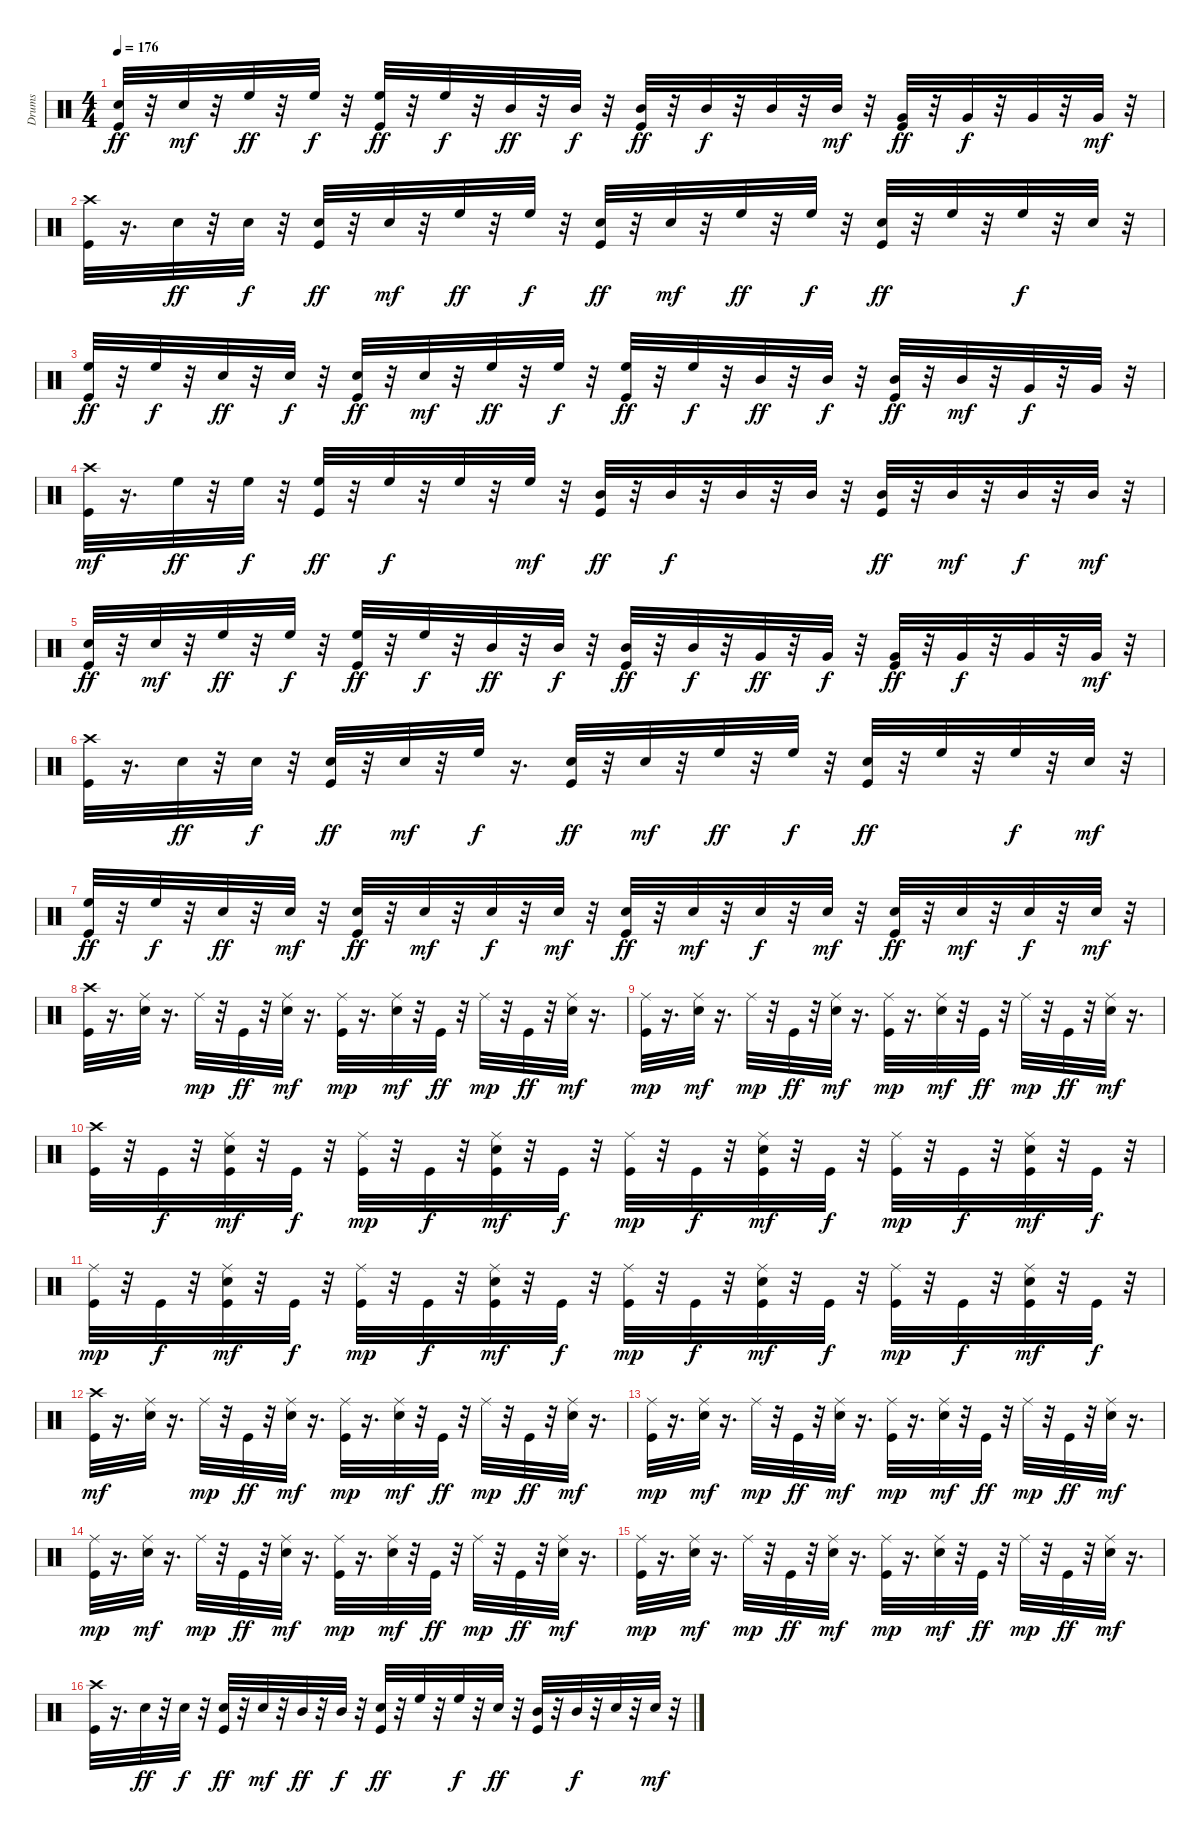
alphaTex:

\track ("Drums" "Drums") {instrument percussion}
\staff {score}
\articulation defaults
\ts (4 4)
\tempo 176
\clef neutral
\ks c
("Kick (hit)" "Snare (hit) 2").32{dy ff} r.32 "Snare (hit) 2".32{dy mf} r.32 "High Floor Tom (hit)".32{dy ff} r.32 "High Floor Tom (hit)".32{dy f} r.32 ("Kick (hit)" "High Floor Tom (hit)").32{dy ff} r.32 "High Floor Tom (hit)".32{dy f} r.32 "Mid Tom (hit)".32{dy ff} r.32 "Mid Tom (hit)".32{dy f} r.32 ("Kick (hit)" "Mid Tom (hit)").32{dy ff} r.32 "Mid Tom (hit)".32{dy f} r.32 "Mid Tom (hit)".32 r.32 "Mid Tom (hit)".32{dy mf} r.32 ("Kick (hit)" "Very Low Tom (hit)").32{dy ff} r.32 "Very Low Tom (hit)".32{dy f} r.32 "Very Low Tom (hit)".32 r.32 "Very Low Tom (hit)".32{dy mf} r.32 |
("Kick (hit)" "Crash high (hit)").32 r.16{d} "Snare (hit) 2".32{dy ff} r.32 "Snare (hit) 2".32{dy f} r.32 ("Kick (hit)" "Snare (hit) 2").32{dy ff} r.32 "Snare (hit) 2".32{dy mf} r.32 "High Floor Tom (hit)".32{dy ff} r.32 "High Floor Tom (hit)".32{dy f} r.32 ("Kick (hit)" "Snare (hit) 2").32{dy ff} r.32 "Snare (hit) 2".32{dy mf} r.32 "High Floor Tom (hit)".32{dy ff} r.32 "High Floor Tom (hit)".32{dy f} r.32 ("Kick (hit)" "Snare (hit) 2").32{dy ff} r.32 "High Floor Tom (hit)".32 r.32 "High Floor Tom (hit)".32{dy f} r.32 "Snare (hit) 2".32 r.32 |
("Kick (hit)" "High Floor Tom (hit)").32{dy ff} r.32 "High Floor Tom (hit)".32{dy f} r.32 "Snare (hit) 2".32{dy ff} r.32 "Snare (hit) 2".32{dy f} r.32 ("Kick (hit)" "Snare (hit) 2").32{dy ff} r.32 "Snare (hit) 2".32{dy mf} r.32 "High Floor Tom (hit)".32{dy ff} r.32 "High Floor Tom (hit)".32{dy f} r.32 ("Kick (hit)" "High Floor Tom (hit)").32{dy ff} r.32 "High Floor Tom (hit)".32{dy f} r.32 "Mid Tom (hit)".32{dy ff} r.32 "Mid Tom (hit)".32{dy f} r.32 ("Kick (hit)" "Mid Tom (hit)").32{dy ff} r.32 "Mid Tom (hit)".32{dy mf} r.32 "Very Low Tom (hit)".32{dy f} r.32 "Very Low Tom (hit)".32 r.32 |
("Kick (hit)" "Crash high (hit)").32{dy mf} r.16{d} "High Floor Tom (hit)".32{dy ff} r.32 "High Floor Tom (hit)".32{dy f} r.32 ("Kick (hit)" "High Floor Tom (hit)").32{dy ff} r.32 "High Floor Tom (hit)".32{dy f} r.32 "High Floor Tom (hit)".32 r.32 "High Floor Tom (hit)".32{dy mf} r.32 ("Kick (hit)" "Mid Tom (hit)").32{dy ff} r.32 "Mid Tom (hit)".32{dy f} r.32 "Mid Tom (hit)".32 r.32 "Mid Tom (hit)".32 r.32 ("Kick (hit)" "Mid Tom (hit)").32{dy ff} r.32 "Mid Tom (hit)".32{dy mf} r.32 "Mid Tom (hit)".32{dy f} r.32 "Mid Tom (hit)".32{dy mf} r.32 |
("Kick (hit)" "Snare (hit) 2").32{dy ff} r.32 "Snare (hit) 2".32{dy mf} r.32 "High Floor Tom (hit)".32{dy ff} r.32 "High Floor Tom (hit)".32{dy f} r.32 ("Kick (hit)" "High Floor Tom (hit)").32{dy ff} r.32 "High Floor Tom (hit)".32{dy f} r.32 "Mid Tom (hit)".32{dy ff} r.32 "Mid Tom (hit)".32{dy f} r.32 ("Kick (hit)" "Mid Tom (hit)").32{dy ff} r.32 "Mid Tom (hit)".32{dy f} r.32 "Very Low Tom (hit)".32{dy ff} r.32 "Very Low Tom (hit)".32{dy f} r.32 ("Kick (hit)" "Very Low Tom (hit)").32{dy ff} r.32 "Very Low Tom (hit)".32{dy f} r.32 "Very Low Tom (hit)".32 r.32 "Very Low Tom (hit)".32{dy mf} r.32 |
("Kick (hit)" "Crash high (hit)").32 r.16{d} "Snare (hit) 2".32{dy ff} r.32 "Snare (hit) 2".32{dy f} r.32 ("Kick (hit)" "Snare (hit) 2").32{dy ff} r.32 "Snare (hit) 2".32{dy mf} r.32 "High Floor Tom (hit)".32{dy f} r.16{d} ("Kick (hit)" "Snare (hit) 2").32{dy ff} r.32 "Snare (hit) 2".32{dy mf} r.32 "High Floor Tom (hit)".32{dy ff} r.32 "High Floor Tom (hit)".32{dy f} r.32 ("Kick (hit)" "Snare (hit) 2").32{dy ff} r.32 "High Floor Tom (hit)".32 r.32 "High Floor Tom (hit)".32{dy f} r.32 "Snare (hit) 2".32{dy mf} r.32 |
("Kick (hit)" "High Floor Tom (hit)").32{dy ff} r.32 "High Floor Tom (hit)".32{dy f} r.32 "Snare (hit) 2".32{dy ff} r.32 "Snare (hit) 2".32{dy mf} r.32 ("Kick (hit)" "Snare (hit) 2").32{dy ff} r.32 "Snare (hit) 2".32{dy mf} r.32 "Snare (hit) 2".32{dy f} r.32 "Snare (hit) 2".32{dy mf} r.32 ("Kick (hit)" "Snare (hit) 2").32{dy ff} r.32 "Snare (hit) 2".32{dy mf} r.32 "Snare (hit) 2".32{dy f} r.32 "Snare (hit) 2".32{dy mf} r.32 ("Kick (hit)" "Snare (hit) 2").32{dy ff} r.32 "Snare (hit) 2".32{dy mf} r.32 "Snare (hit) 2".32{dy f} r.32 "Snare (hit) 2".32{dy mf} r.32 |
("Kick (hit)" "Crash high (hit)").32 r.16{d} ("Snare (hit) 2" "Ride (middle)").32 r.16{d} "Ride (middle)".32{dy mp} r.32 "Kick (hit)".32{dy ff} r.32 ("Snare (hit) 2" "Ride (middle)").32{dy mf} r.16{d} ("Kick (hit)" "Ride (middle)").32{dy mp} r.16{d} ("Snare (hit) 2" "Ride (middle)").32{dy mf} r.32 "Kick (hit)".32{dy ff} r.32 "Ride (middle)".32{dy mp} r.32 "Kick (hit)".32{dy ff} r.32 ("Snare (hit) 2" "Ride (middle)").32{dy mf} r.16{d} |
("Kick (hit)" "Ride (middle)").32{dy mp} r.16{d} ("Snare (hit) 2" "Ride (middle)").32{dy mf} r.16{d} "Ride (middle)".32{dy mp} r.32 "Kick (hit)".32{dy ff} r.32 ("Snare (hit) 2" "Ride (middle)").32{dy mf} r.16{d} ("Kick (hit)" "Ride (middle)").32{dy mp} r.16{d} ("Snare (hit) 2" "Ride (middle)").32{dy mf} r.32 "Kick (hit)".32{dy ff} r.32 "Ride (middle)".32{dy mp} r.32 "Kick (hit)".32{dy ff} r.32 ("Snare (hit) 2" "Ride (middle)").32{dy mf} r.16{d} |
("Kick (hit)" "Crash high (hit)").32 r.32 "Kick (hit)".32{dy f} r.32 ("Kick (hit)" "Snare (hit) 2" "Ride (middle)").32{dy mf} r.32 "Kick (hit)".32{dy f} r.32 ("Kick (hit)" "Ride (middle)").32{dy mp} r.32 "Kick (hit)".32{dy f} r.32 ("Kick (hit)" "Snare (hit) 2" "Ride (middle)").32{dy mf} r.32 "Kick (hit)".32{dy f} r.32 ("Kick (hit)" "Ride (middle)").32{dy mp} r.32 "Kick (hit)".32{dy f} r.32 ("Kick (hit)" "Snare (hit) 2" "Ride (middle)").32{dy mf} r.32 "Kick (hit)".32{dy f} r.32 ("Kick (hit)" "Ride (middle)").32{dy mp} r.32 "Kick (hit)".32{dy f} r.32 ("Kick (hit)" "Snare (hit) 2" "Ride (middle)").32{dy mf} r.32 "Kick (hit)".32{dy f} r.32 |
("Kick (hit)" "Ride (middle)").32{dy mp} r.32 "Kick (hit)".32{dy f} r.32 ("Kick (hit)" "Snare (hit) 2" "Ride (middle)").32{dy mf} r.32 "Kick (hit)".32{dy f} r.32 ("Kick (hit)" "Ride (middle)").32{dy mp} r.32 "Kick (hit)".32{dy f} r.32 ("Kick (hit)" "Snare (hit) 2" "Ride (middle)").32{dy mf} r.32 "Kick (hit)".32{dy f} r.32 ("Kick (hit)" "Ride (middle)").32{dy mp} r.32 "Kick (hit)".32{dy f} r.32 ("Kick (hit)" "Snare (hit) 2" "Ride (middle)").32{dy mf} r.32 "Kick (hit)".32{dy f} r.32 ("Kick (hit)" "Ride (middle)").32{dy mp} r.32 "Kick (hit)".32{dy f} r.32 ("Kick (hit)" "Snare (hit) 2" "Ride (middle)").32{dy mf} r.32 "Kick (hit)".32{dy f} r.32 |
("Kick (hit)" "Crash high (hit)").32{dy mf} r.16{d} ("Snare (hit) 2" "Ride (middle)").32 r.16{d} "Ride (middle)".32{dy mp} r.32 "Kick (hit)".32{dy ff} r.32 ("Snare (hit) 2" "Ride (middle)").32{dy mf} r.16{d} ("Kick (hit)" "Ride (middle)").32{dy mp} r.16{d} ("Snare (hit) 2" "Ride (middle)").32{dy mf} r.32 "Kick (hit)".32{dy ff} r.32 "Ride (middle)".32{dy mp} r.32 "Kick (hit)".32{dy ff} r.32 ("Snare (hit) 2" "Ride (middle)").32{dy mf} r.16{d} |
("Kick (hit)" "Ride (middle)").32{dy mp} r.16{d} ("Snare (hit) 2" "Ride (middle)").32{dy mf} r.16{d} "Ride (middle)".32{dy mp} r.32 "Kick (hit)".32{dy ff} r.32 ("Snare (hit) 2" "Ride (middle)").32{dy mf} r.16{d} ("Kick (hit)" "Ride (middle)").32{dy mp} r.16{d} ("Snare (hit) 2" "Ride (middle)").32{dy mf} r.32 "Kick (hit)".32{dy ff} r.32 "Ride (middle)".32{dy mp} r.32 "Kick (hit)".32{dy ff} r.32 ("Snare (hit) 2" "Ride (middle)").32{dy mf} r.16{d} |
("Kick (hit)" "Ride (middle)").32{dy mp} r.16{d} ("Snare (hit) 2" "Ride (middle)").32{dy mf} r.16{d} "Ride (middle)".32{dy mp} r.32 "Kick (hit)".32{dy ff} r.32 ("Snare (hit) 2" "Ride (middle)").32{dy mf} r.16{d} ("Kick (hit)" "Ride (middle)").32{dy mp} r.16{d} ("Snare (hit) 2" "Ride (middle)").32{dy mf} r.32 "Kick (hit)".32{dy ff} r.32 "Ride (middle)".32{dy mp} r.32 "Kick (hit)".32{dy ff} r.32 ("Snare (hit) 2" "Ride (middle)").32{dy mf} r.16{d} |
("Kick (hit)" "Ride (middle)").32{dy mp} r.16{d} ("Snare (hit) 2" "Ride (middle)").32{dy mf} r.16{d} "Ride (middle)".32{dy mp} r.32 "Kick (hit)".32{dy ff} r.32 ("Snare (hit) 2" "Ride (middle)").32{dy mf} r.16{d} ("Kick (hit)" "Ride (middle)").32{dy mp} r.16{d} ("Snare (hit) 2" "Ride (middle)").32{dy mf} r.32 "Kick (hit)".32{dy ff} r.32 "Ride (middle)".32{dy mp} r.32 "Kick (hit)".32{dy ff} r.32 ("Snare (hit) 2" "Ride (middle)").32{dy mf} r.16{d} |
("Kick (hit)" "Crash high (hit)").32 r.16{d} "Snare (hit) 2".32{dy ff} r.32 "Snare (hit) 2".32{dy f} r.32 ("Kick (hit)" "Snare (hit) 2").32{dy ff} r.32 "Snare (hit) 2".32{dy mf} r.32 "Mid Tom (hit)".32{dy ff} r.32 "Mid Tom (hit)".32{dy f} r.32 ("Kick (hit)" "Snare (hit) 2").32{dy ff} r.32 "High Floor Tom (hit)".32 r.32 "High Floor Tom (hit)".32{dy f} r.32 "Snare (hit) 2".32{dy ff} r.32 ("Kick (hit)" "Mid Tom (hit)").32 r.32 "Mid Tom (hit)".32{dy f} r.32 "Snare (hit) 2".32 r.32 "Snare (hit) 2".32{dy mf} r.32
